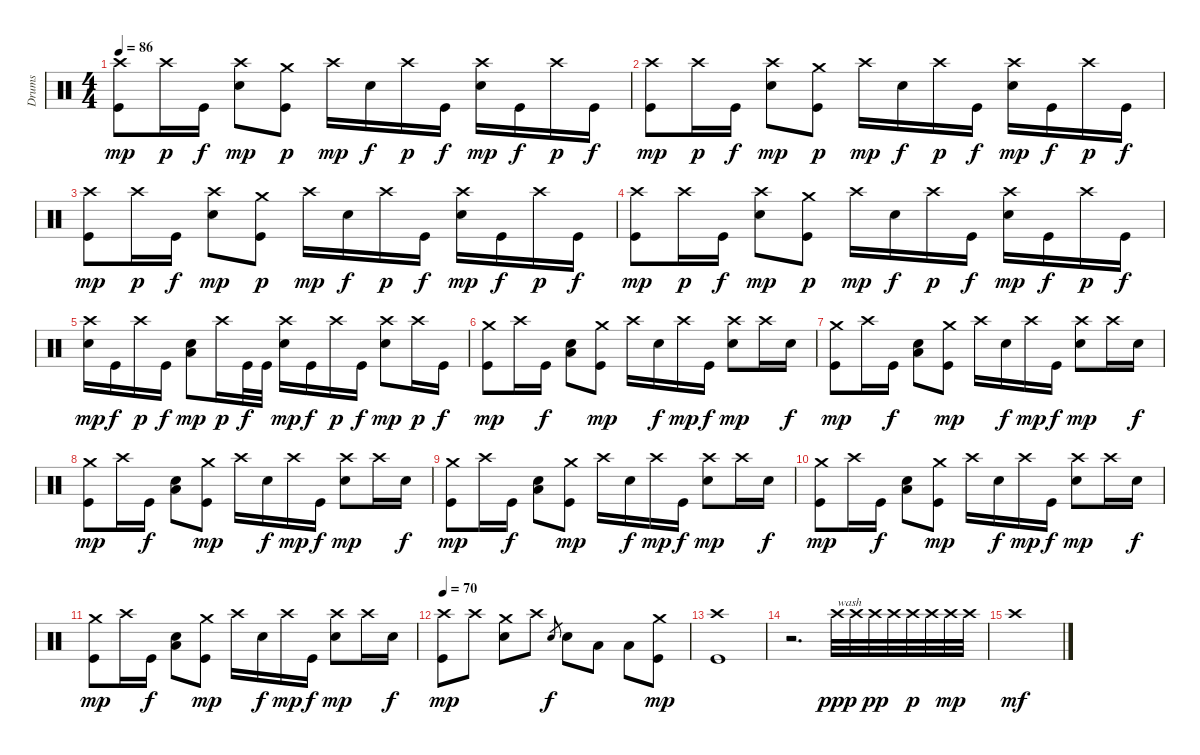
\track ("Drums" "Drums") {instrument percussion}
\staff {score}
\articulation defaults
\ts (4 4)
\tempo 86
\clef neutral
\ks c
("Crash high (hit)" "Kick (hit)").8{dy mp} "Crash high (hit)".16{dy p} "Kick (hit)".16{dy f} ("Crash high (hit)" "Electric Snare (hit)").8{dy mp} ("Crash medium (hit)" "Kick (hit)").8{dy p} "Crash high (hit)".16{dy mp} "Electric Snare (hit)".16{dy f} "Crash high (hit)".16{dy p} "Kick (hit)".16{dy f} ("Crash high (hit)" "Electric Snare (hit)").16{dy mp} "Kick (hit)".16{dy f} "Crash high (hit)".16{dy p} "Kick (hit)".16{dy f} |
("Crash high (hit)" "Kick (hit)").8{dy mp} "Crash high (hit)".16{dy p} "Kick (hit)".16{dy f} ("Crash high (hit)" "Electric Snare (hit)").8{dy mp} ("Crash medium (hit)" "Kick (hit)").8{dy p} "Crash high (hit)".16{dy mp} "Electric Snare (hit)".16{dy f} "Crash high (hit)".16{dy p} "Kick (hit)".16{dy f} ("Crash high (hit)" "Electric Snare (hit)").16{dy mp} "Kick (hit)".16{dy f} "Crash high (hit)".16{dy p} "Kick (hit)".16{dy f} |
("Crash high (hit)" "Kick (hit)").8{dy mp} "Crash high (hit)".16{dy p} "Kick (hit)".16{dy f} ("Crash high (hit)" "Electric Snare (hit)").8{dy mp} ("Crash medium (hit)" "Kick (hit)").8{dy p} "Crash high (hit)".16{dy mp} "Electric Snare (hit)".16{dy f} "Crash high (hit)".16{dy p} "Kick (hit)".16{dy f} ("Crash high (hit)" "Electric Snare (hit)").16{dy mp} "Kick (hit)".16{dy f} "Crash high (hit)".16{dy p} "Kick (hit)".16{dy f} |
("Crash high (hit)" "Kick (hit)").8{dy mp} "Crash high (hit)".16{dy p} "Kick (hit)".16{dy f} ("Crash high (hit)" "Electric Snare (hit)").8{dy mp} ("Crash medium (hit)" "Kick (hit)").8{dy p} "Crash high (hit)".16{dy mp} "Electric Snare (hit)".16{dy f} "Crash high (hit)".16{dy p} "Kick (hit)".16{dy f} ("Crash high (hit)" "Electric Snare (hit)").16{dy mp} "Kick (hit)".16{dy f} "Crash high (hit)".16{dy p} "Kick (hit)".16{dy f} |
("Crash high (hit)" "Electric Snare (hit)").16{dy mp} "Kick (hit)".16{dy f} "Crash high (hit)".16{dy p} "Kick (hit)".16{dy f} ("Electric Snare (hit)" "Low Floor Tom (hit)").8{dy mp} "Crash high (hit)".16{dy p} "Kick (hit)".32{dy f} "Kick (hit)".32 ("Crash high (hit)" "Electric Snare (hit)").16{dy mp} "Kick (hit)".16{dy f} "Crash high (hit)".16{dy p} "Kick (hit)".16{dy f} ("Crash high (hit)" "Electric Snare (hit)").8{dy mp} "Crash high (hit)".16{dy p} "Kick (hit)".16{dy f} |
("Crash medium (hit)" "Kick (hit)").8{dy mp} "Crash high (hit)".16 "Kick (hit)".16{dy f} ("Electric Snare (hit)" "Low Floor Tom (hit)").8 ("Crash medium (hit)" "Kick (hit)").8{dy mp} "Crash high (hit)".16 "Electric Snare (hit)".16{dy f} "Crash high (hit)".16{dy mp} "Kick (hit)".16{dy f} ("Crash high (hit)" "Electric Snare (hit)").8{dy mp} "Crash high (hit)".16 "Electric Snare (hit)".16{dy f} |
("Crash medium (hit)" "Kick (hit)").8{dy mp} "Crash high (hit)".16 "Kick (hit)".16{dy f} ("Electric Snare (hit)" "Low Floor Tom (hit)").8 ("Crash medium (hit)" "Kick (hit)").8{dy mp} "Crash high (hit)".16 "Electric Snare (hit)".16{dy f} "Crash high (hit)".16{dy mp} "Kick (hit)".16{dy f} ("Crash high (hit)" "Electric Snare (hit)").8{dy mp} "Crash high (hit)".16 "Electric Snare (hit)".16{dy f} |
("Crash medium (hit)" "Kick (hit)").8{dy mp} "Crash high (hit)".16 "Kick (hit)".16{dy f} ("Electric Snare (hit)" "Low Floor Tom (hit)").8 ("Crash medium (hit)" "Kick (hit)").8{dy mp} "Crash high (hit)".16 "Electric Snare (hit)".16{dy f} "Crash high (hit)".16{dy mp} "Kick (hit)".16{dy f} ("Crash high (hit)" "Electric Snare (hit)").8{dy mp} "Crash high (hit)".16 "Electric Snare (hit)".16{dy f} |
("Crash medium (hit)" "Kick (hit)").8{dy mp} "Crash high (hit)".16 "Kick (hit)".16{dy f} ("Electric Snare (hit)" "Low Floor Tom (hit)").8 ("Crash medium (hit)" "Kick (hit)").8{dy mp} "Crash high (hit)".16 "Electric Snare (hit)".16{dy f} "Crash high (hit)".16{dy mp} "Kick (hit)".16{dy f} ("Crash high (hit)" "Electric Snare (hit)").8{dy mp} "Crash high (hit)".16 "Electric Snare (hit)".16{dy f} |
("Crash medium (hit)" "Kick (hit)").8{dy mp} "Crash high (hit)".16 "Kick (hit)".16{dy f} ("Electric Snare (hit)" "Low Floor Tom (hit)").8 ("Crash medium (hit)" "Kick (hit)").8{dy mp} "Crash high (hit)".16 "Electric Snare (hit)".16{dy f} "Crash high (hit)".16{dy mp} "Kick (hit)".16{dy f} ("Crash high (hit)" "Electric Snare (hit)").8{dy mp} "Crash high (hit)".16 "Electric Snare (hit)".16{dy f} |
("Crash medium (hit)" "Kick (hit)").8{dy mp} "Crash high (hit)".16 "Kick (hit)".16{dy f} ("Electric Snare (hit)" "Low Floor Tom (hit)").8 ("Crash medium (hit)" "Kick (hit)").8{dy mp} "Crash high (hit)".16 "Electric Snare (hit)".16{dy f} "Crash high (hit)".16{dy mp} "Kick (hit)".16{dy f} ("Crash high (hit)" "Electric Snare (hit)").8{dy mp} "Crash high (hit)".16 "Electric Snare (hit)".16{dy f} |
\tempo 70
("Crash high (hit)" "Kick (hit)").8{dy mp} "Crash high (hit)".8 ("Crash medium (hit)" "Electric Snare (hit)").8 "Crash high (hit)".8 "Electric Snare (hit)".8{gr dy f} "Electric Snare (hit)".8 "Low Tom (hit)".8 "Low Floor Tom (hit)".8 ("Crash medium (hit)" "Kick (hit)").8{dy mp} |
("Crash high (hit)" "Kick (hit)").1 |
r.2{d} "Crash high (hit)".32{txt "wash" dy ppp} "Crash high (hit)".32 "Crash high (hit)".32{dy pp} "Crash high (hit)".32 "Crash high (hit)".32{dy p} "Crash high (hit)".32 "Crash high (hit)".32{dy mp} "Crash high (hit)".32 |
"Crash high (hit)".1{dy mf}
